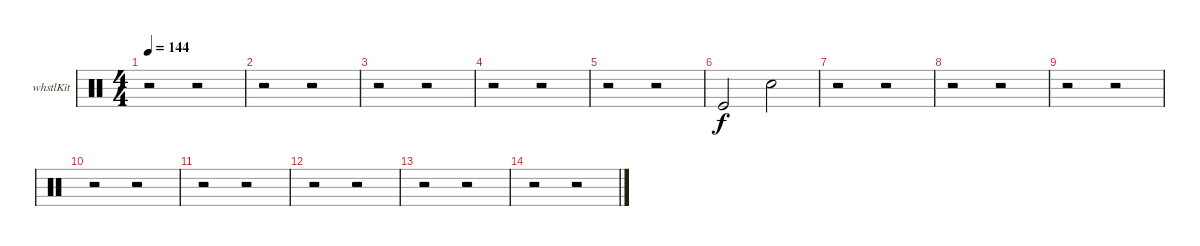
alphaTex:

\bracketExtendMode groupsimilarinstruments
\firstSystemTrackNameOrientation horizontal
\otherSystemsTrackNameOrientation horizontal
\track ("Whistle" "whstlKit") {instrument percussion}
\staff {score}
\articulation defaults
\ts (4 4)
\tempo 144
\clef neutral
\ks c
r.2{dy f} r.2 |
r.2 r.2 |
r.2 r.2 |
r.2 r.2 |
r.2 r.2 |
"Kick (hit)".2 "Snare (hit) 2".2 |
r.2 r.2 |
r.2 r.2 |
r.2 r.2 |
r.2 r.2 |
r.2 r.2 |
r.2 r.2 |
r.2 r.2 |
r.2 r.2
